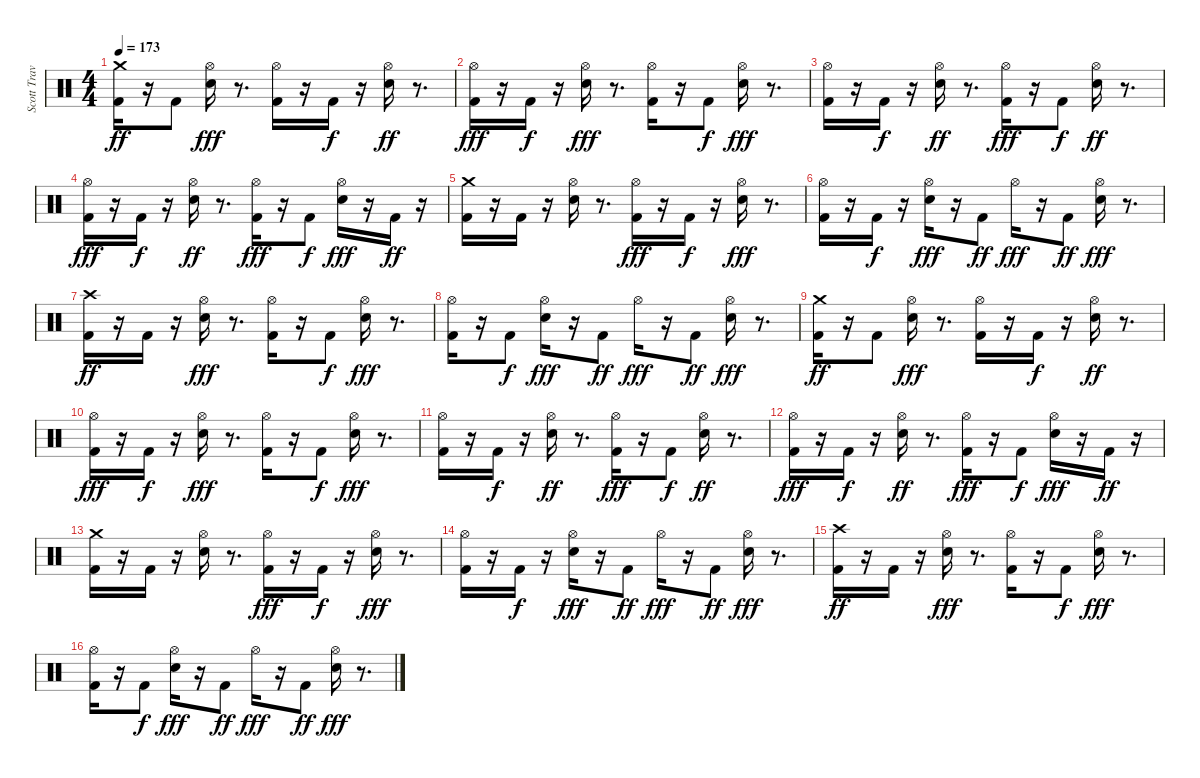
\track ("Scott Travis" "Scott Trav") {instrument percussion}
\staff {score}
\articulation defaults
\ts (4 4)
\tempo 173
\clef neutral
\ks c
("Kick (hit) 2" "Crash medium (hit)").16{dy ff} r.16 "Kick (hit) 2".8 ("Hi-Hat (open)" "Snare (hit) 2").16{dy fff} r.8{d} ("Kick (hit) 2" "Hi-Hat (open)").16 r.16 "Kick (hit) 2".16{dy f} r.16 ("Hi-Hat (open)" "Snare (hit) 2").16{dy ff} r.8{d} |
("Hi-Hat (open)" "Kick (hit) 2").16{dy fff} r.16 "Kick (hit) 2".16{dy f} r.16 ("Snare (hit) 2" "Hi-Hat (open)").16{dy fff} r.8{d} ("Kick (hit) 2" "Hi-Hat (open)").16 r.16 "Kick (hit) 2".8{dy f} ("Snare (hit) 2" "Hi-Hat (open)").16{dy fff} r.8{d} |
("Kick (hit) 2" "Hi-Hat (open)").16 r.16 "Kick (hit) 2".16{dy f} r.16 ("Hi-Hat (open)" "Snare (hit) 2").16{dy ff} r.8{d} ("Kick (hit) 2" "Hi-Hat (open)").16{dy fff} r.16 "Kick (hit) 2".8{dy f} ("Hi-Hat (open)" "Snare (hit) 2").16{dy ff} r.8{d} |
("Kick (hit) 2" "Hi-Hat (open)").16{dy fff} r.16 "Kick (hit) 2".16{dy f} r.16 ("Hi-Hat (open)" "Snare (hit) 2").16{dy ff} r.8{d} ("Kick (hit) 2" "Hi-Hat (open)").16{dy fff} r.16 "Kick (hit) 2".8{dy f} ("Snare (hit) 2" "Hi-Hat (open)").16{dy fff} r.16 "Kick (hit) 2".16{dy ff} r.16 |
("Crash medium (hit)" "Kick (hit) 2").16 r.16 "Kick (hit) 2".16 r.16 ("Snare (hit) 2" "Hi-Hat (open)").16 r.8{d} ("Kick (hit) 2" "Hi-Hat (open)").16{dy fff} r.16 "Kick (hit) 2".16{dy f} r.16 ("Snare (hit) 2" "Hi-Hat (open)").16{dy fff} r.8{d} |
("Kick (hit) 2" "Hi-Hat (open)").16 r.16 "Kick (hit) 2".16{dy f} r.16 ("Snare (hit) 2" "Hi-Hat (open)").16{dy fff} r.16 "Kick (hit) 2".8{dy ff} "Hi-Hat (open)".16{dy fff} r.16 "Kick (hit) 2".8{dy ff} ("Snare (hit) 2" "Hi-Hat (open)").16{dy fff} r.8{d} |
("Crash high (hit)" "Kick (hit) 2").16{dy ff} r.16 "Kick (hit) 2".16 r.16 ("Hi-Hat (open)" "Snare (hit) 2").16{dy fff} r.8{d} ("Kick (hit) 2" "Hi-Hat (open)").16 r.16 "Kick (hit) 2".8{dy f} ("Snare (hit) 2" "Hi-Hat (open)").16{dy fff} r.8{d} |
("Kick (hit) 2" "Hi-Hat (open)").16 r.16 "Kick (hit) 2".8{dy f} ("Snare (hit) 2" "Hi-Hat (open)").16{dy fff} r.16 "Kick (hit) 2".8{dy ff} "Hi-Hat (open)".16{dy fff} r.16 "Kick (hit) 2".8{dy ff} ("Snare (hit) 2" "Hi-Hat (open)").16{dy fff} r.8{d} |
("Kick (hit) 2" "Crash medium (hit)").16{dy ff} r.16 "Kick (hit) 2".8 ("Hi-Hat (open)" "Snare (hit) 2").16{dy fff} r.8{d} ("Kick (hit) 2" "Hi-Hat (open)").16 r.16 "Kick (hit) 2".16{dy f} r.16 ("Hi-Hat (open)" "Snare (hit) 2").16{dy ff} r.8{d} |
("Hi-Hat (open)" "Kick (hit) 2").16{dy fff} r.16 "Kick (hit) 2".16{dy f} r.16 ("Snare (hit) 2" "Hi-Hat (open)").16{dy fff} r.8{d} ("Kick (hit) 2" "Hi-Hat (open)").16 r.16 "Kick (hit) 2".8{dy f} ("Snare (hit) 2" "Hi-Hat (open)").16{dy fff} r.8{d} |
("Kick (hit) 2" "Hi-Hat (open)").16 r.16 "Kick (hit) 2".16{dy f} r.16 ("Hi-Hat (open)" "Snare (hit) 2").16{dy ff} r.8{d} ("Kick (hit) 2" "Hi-Hat (open)").16{dy fff} r.16 "Kick (hit) 2".8{dy f} ("Hi-Hat (open)" "Snare (hit) 2").16{dy ff} r.8{d} |
("Kick (hit) 2" "Hi-Hat (open)").16{dy fff} r.16 "Kick (hit) 2".16{dy f} r.16 ("Hi-Hat (open)" "Snare (hit) 2").16{dy ff} r.8{d} ("Kick (hit) 2" "Hi-Hat (open)").16{dy fff} r.16 "Kick (hit) 2".8{dy f} ("Snare (hit) 2" "Hi-Hat (open)").16{dy fff} r.16 "Kick (hit) 2".16{dy ff} r.16 |
("Crash medium (hit)" "Kick (hit) 2").16 r.16 "Kick (hit) 2".16 r.16 ("Snare (hit) 2" "Hi-Hat (open)").16 r.8{d} ("Kick (hit) 2" "Hi-Hat (open)").16{dy fff} r.16 "Kick (hit) 2".16{dy f} r.16 ("Snare (hit) 2" "Hi-Hat (open)").16{dy fff} r.8{d} |
("Kick (hit) 2" "Hi-Hat (open)").16 r.16 "Kick (hit) 2".16{dy f} r.16 ("Snare (hit) 2" "Hi-Hat (open)").16{dy fff} r.16 "Kick (hit) 2".8{dy ff} "Hi-Hat (open)".16{dy fff} r.16 "Kick (hit) 2".8{dy ff} ("Snare (hit) 2" "Hi-Hat (open)").16{dy fff} r.8{d} |
("Crash high (hit)" "Kick (hit) 2").16{dy ff} r.16 "Kick (hit) 2".16 r.16 ("Hi-Hat (open)" "Snare (hit) 2").16{dy fff} r.8{d} ("Kick (hit) 2" "Hi-Hat (open)").16 r.16 "Kick (hit) 2".8{dy f} ("Snare (hit) 2" "Hi-Hat (open)").16{dy fff} r.8{d} |
("Kick (hit) 2" "Hi-Hat (open)").16 r.16 "Kick (hit) 2".8{dy f} ("Snare (hit) 2" "Hi-Hat (open)").16{dy fff} r.16 "Kick (hit) 2".8{dy ff} "Hi-Hat (open)".16{dy fff} r.16 "Kick (hit) 2".8{dy ff} ("Snare (hit) 2" "Hi-Hat (open)").16{dy fff} r.8{d}
